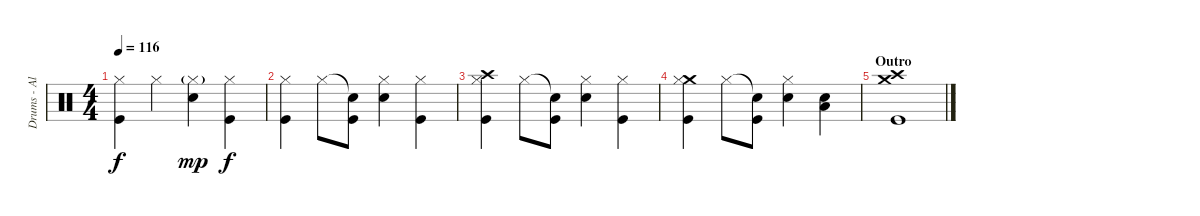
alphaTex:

\track ("Drums - Alex Holzwarth" "Drums - Al") {instrument percussion}
\staff {score}
\articulation defaults
\ts (4 4)
\tempo 116
\clef neutral
\ks c
("Hi-Hat (closed)" "Kick (hit)").4{dy f} "Hi-Hat (closed)".4 ("Snare (hit) 2" "Hi-Hat (closed)"{g}).4{dy mp} ("Hi-Hat (closed)" "Kick (hit)").4{dy f} |
("Hi-Hat (closed)" "Kick (hit)").4 "Hi-Hat (closed)".8 ("Snare (hit)"{t} "Kick (hit)").8 ("Snare (hit) 2" "Hi-Hat (closed)").4 ("Hi-Hat (closed)" "Kick (hit)").4 |
("Crash high (hit)" "Hi-Hat (closed)" "Kick (hit)").4 "Hi-Hat (closed)".8 ("Snare (hit)"{t} "Kick (hit)").8 ("Snare (hit) 2" "Hi-Hat (closed)").4 ("Hi-Hat (closed)" "Kick (hit)").4 |
("Crash medium (hit)" "Hi-Hat (closed)" "Kick (hit)").4 "Hi-Hat (closed)".8 ("Snare (hit)"{t} "Kick (hit)").8 ("Snare (hit) 2" "Hi-Hat (closed)").4 ("Low Floor Tom (hit)" "Snare (hit) 2").4 |
\section ("" "Outro")
("Crash medium (hit)" "Crash high (hit)" "Kick (hit)").1
